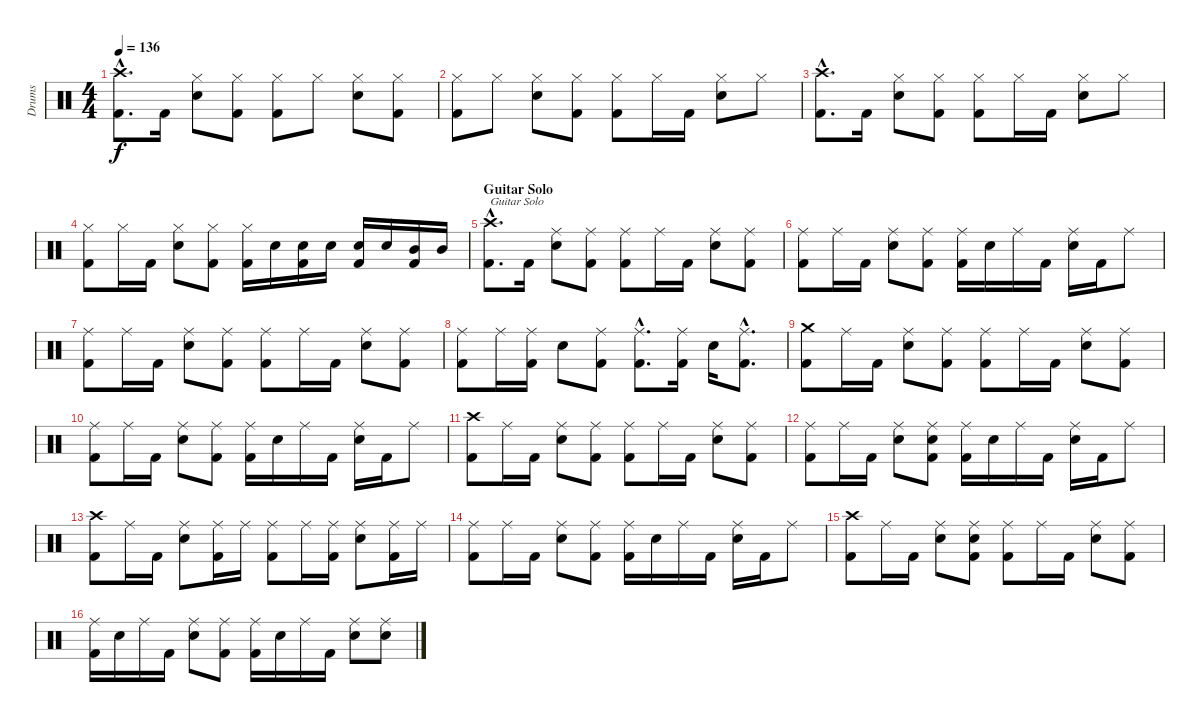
\track ("Drums" "Drums") {instrument percussion}
\staff {score}
\articulation defaults
\ts (4 4)
\tempo 136
\clef neutral
\ks c
("Crash high (hit)"{hac} "Kick (hit) 2"{hac}).8{d dy f} "Kick (hit) 2".16 ("Hi-Hat (closed)" "Electric Snare (hit)").8 ("Hi-Hat (closed)" "Kick (hit) 2").8 ("Hi-Hat (closed)" "Kick (hit) 2").8 "Hi-Hat (closed)".8 ("Hi-Hat (closed)" "Electric Snare (hit)").8 ("Hi-Hat (closed)" "Kick (hit) 2").8 |
("Hi-Hat (closed)" "Kick (hit) 2").8 "Hi-Hat (closed)".8 ("Hi-Hat (closed)" "Electric Snare (hit)").8 ("Hi-Hat (closed)" "Kick (hit) 2").8 ("Hi-Hat (closed)" "Kick (hit) 2").8 "Hi-Hat (closed)".16 "Kick (hit) 2".16 ("Hi-Hat (closed)" "Electric Snare (hit)").8 "Hi-Hat (closed)".8 |
("Crash high (hit)"{hac} "Kick (hit) 2"{hac}).8{d} "Kick (hit) 2".16 ("Hi-Hat (closed)" "Electric Snare (hit)").8 ("Hi-Hat (closed)" "Kick (hit) 2").8 ("Hi-Hat (closed)" "Kick (hit) 2").8 "Hi-Hat (closed)".16 "Kick (hit) 2".16 ("Hi-Hat (closed)" "Electric Snare (hit)").8 "Hi-Hat (closed)".8 |
("Hi-Hat (closed)" "Kick (hit) 2").8 "Hi-Hat (closed)".16 "Kick (hit) 2".16 ("Hi-Hat (closed)" "Electric Snare (hit)").8 ("Hi-Hat (closed)" "Kick (hit) 2").8 ("Hi-Hat (closed)" "Kick (hit) 2").16 "Electric Snare (hit)".16 ("Electric Snare (hit)" "Kick (hit) 2").16 "Electric Snare (hit)".16 ("Electric Snare (hit)" "Kick (hit) 2").16 "Electric Snare (hit)".16 ("Mid Tom (hit)" "Kick (hit) 2").16 "Mid Tom (hit)".16 |
\section ("" "Guitar Solo")
("Crash high (hit)"{hac} "Kick (hit) 2"{hac}).8{d txt "Guitar Solo"} "Kick (hit) 2".16 ("Ride (middle)" "Electric Snare (hit)").8 ("Ride (middle)" "Kick (hit) 2").8 ("Ride (middle)" "Kick (hit) 2").8 "Ride (middle)".16 "Kick (hit) 2".16 ("Ride (middle)" "Electric Snare (hit)").8 ("Ride (middle)" "Kick (hit) 2").8 |
("Ride (middle)" "Kick (hit) 2").8 "Ride (middle)".16 "Kick (hit) 2".16 ("Ride (middle)" "Electric Snare (hit)").8 ("Ride (middle)" "Kick (hit) 2").8 ("Ride (middle)" "Kick (hit) 2").16 "Electric Snare (hit)".16 "Ride (middle)".16 "Kick (hit) 2".16 ("Ride (middle)" "Electric Snare (hit)").16 "Kick (hit) 2".16 "Ride (middle)".8 |
("Ride (middle)" "Kick (hit) 2").8 "Ride (middle)".16 "Kick (hit) 2".16 ("Ride (middle)" "Electric Snare (hit)").8 ("Ride (middle)" "Kick (hit) 2").8 ("Ride (middle)" "Kick (hit) 2").8 "Ride (middle)".16 "Kick (hit) 2".16 ("Ride (middle)" "Electric Snare (hit)").8 ("Ride (middle)" "Kick (hit) 2").8 |
("Ride (middle)" "Kick (hit) 2").8 "Ride (middle)".16 ("Ride (middle)" "Kick (hit) 2").16 "Electric Snare (hit)".8 ("Ride (middle)" "Kick (hit) 2").8 ("Ride (middle)"{hac} "Kick (hit) 2"{hac}).8{d} ("Ride (middle)" "Kick (hit) 2").16 "Electric Snare (hit)".16 ("Ride (middle)"{hac} "Kick (hit) 2"{hac}).8{d} |
("Crash medium (hit)" "Kick (hit) 2").8 "Ride (middle)".16 "Kick (hit) 2".16 ("Ride (middle)" "Electric Snare (hit)").8 ("Ride (middle)" "Kick (hit) 2").8 ("Ride (middle)" "Kick (hit) 2").8 "Ride (middle)".16 "Kick (hit) 2".16 ("Ride (middle)" "Electric Snare (hit)").8 ("Ride (middle)" "Kick (hit) 2").8 |
("Ride (middle)" "Kick (hit) 2").8 "Ride (middle)".16 "Kick (hit) 2".16 ("Ride (middle)" "Electric Snare (hit)").8 ("Ride (middle)" "Kick (hit) 2").8 ("Ride (middle)" "Kick (hit) 2").16 "Electric Snare (hit)".16 "Ride (middle)".16 "Kick (hit) 2".16 ("Ride (middle)" "Electric Snare (hit)").16 "Kick (hit) 2".16 "Ride (middle)".8 |
("Crash high (hit)" "Kick (hit) 2").8 "Ride (middle)".16 "Kick (hit) 2".16 ("Ride (middle)" "Electric Snare (hit)").8 ("Ride (middle)" "Kick (hit) 2").8 ("Ride (middle)" "Kick (hit) 2").8 "Ride (middle)".16 "Kick (hit) 2".16 ("Ride (middle)" "Electric Snare (hit)").8 ("Ride (middle)" "Kick (hit) 2").8 |
("Ride (middle)" "Kick (hit) 2").8 "Ride (middle)".16 "Kick (hit) 2".16 ("Ride (middle)" "Electric Snare (hit)").8 ("Ride (middle)" "Electric Snare (hit)" "Kick (hit) 2").8 ("Ride (middle)" "Kick (hit) 2").16 "Electric Snare (hit)".16 "Ride (middle)".16 "Kick (hit) 2".16 ("Ride (middle)" "Electric Snare (hit)").16 "Kick (hit) 2".16 "Ride (middle)".8 |
("Crash high (hit)" "Kick (hit) 2").8 "Ride (middle)".16 "Kick (hit) 2".16 ("Ride (middle)" "Electric Snare (hit)").8 ("Ride (middle)" "Kick (hit) 2").16 "Ride (middle)".16 ("Ride (middle)" "Kick (hit) 2").8 "Ride (middle)".16 ("Ride (middle)" "Kick (hit) 2").16 ("Ride (middle)" "Electric Snare (hit)").8 ("Ride (middle)" "Kick (hit) 2").16 "Ride (middle)".16 |
("Ride (middle)" "Kick (hit) 2").8 "Ride (middle)".16 "Kick (hit) 2".16 ("Ride (middle)" "Electric Snare (hit)").8 ("Ride (middle)" "Kick (hit) 2").8 ("Ride (middle)" "Kick (hit) 2").16 "Electric Snare (hit)".16 "Ride (middle)".16 "Kick (hit) 2".16 ("Ride (middle)" "Electric Snare (hit)").16 "Kick (hit) 2".16 "Ride (middle)".8 |
("Crash high (hit)" "Kick (hit) 2").8 "Ride (middle)".16 "Kick (hit) 2".16 ("Ride (middle)" "Electric Snare (hit)").8 ("Ride (middle)" "Electric Snare (hit)" "Kick (hit) 2").8 ("Ride (middle)" "Kick (hit) 2").8 "Ride (middle)".16 "Kick (hit) 2".16 ("Ride (middle)" "Electric Snare (hit)").8 ("Ride (middle)" "Kick (hit) 2").8 |
("Ride (middle)" "Kick (hit) 2").16 "Electric Snare (hit)".16 "Ride (middle)".16 "Kick (hit) 2".16 ("Ride (middle)" "Electric Snare (hit)").8 ("Ride (middle)" "Kick (hit) 2").8 ("Ride (middle)" "Kick (hit) 2").16 "Electric Snare (hit)".16 "Ride (middle)".16 "Kick (hit) 2".16 ("Ride (middle)" "Electric Snare (hit)").8 ("Ride (middle)" "Electric Snare (hit)").8
